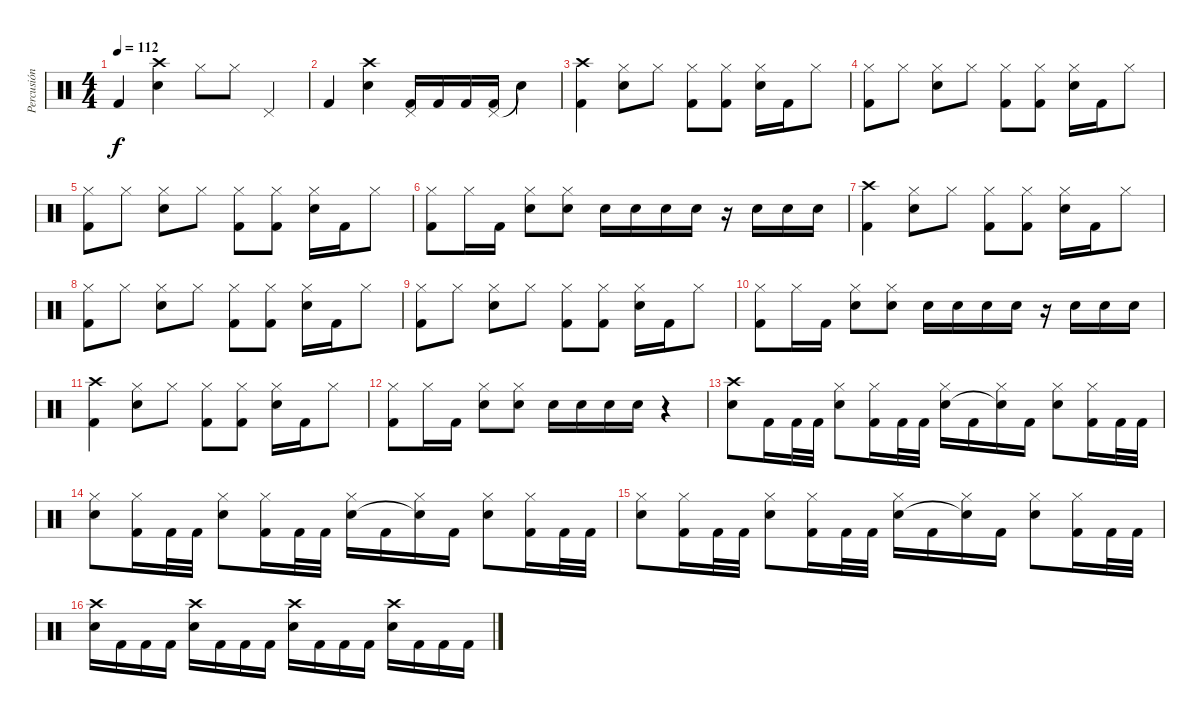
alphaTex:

\track ("Percusión" "Percusión") {instrument percussion}
\staff {score}
\articulation defaults
\ts (4 4)
\tempo 112
\clef neutral
\ks c "Kick (hit) 2".4{dy f}
("Crash high (hit)" "Electric Snare (hit)").4 "Hi-Hat (closed)".8 "Hi-Hat (closed)".8 "Pedal Hi-Hat (hit)".4 |
"Kick (hit) 2".4 ("Crash high (hit)" "Electric Snare (hit)").4 ("Pedal Hi-Hat (hit)" "Kick (hit) 2").16 "Kick (hit) 2".16 "Kick (hit) 2".16 ("Pedal Hi-Hat (hit)" "Kick (hit) 2").16 "Snare (hit)"{t}.4 |
("Crash high (hit)" "Kick (hit) 2").4 ("Hi-Hat (closed)" "Electric Snare (hit)").8 "Hi-Hat (closed)".8 ("Hi-Hat (closed)" "Kick (hit) 2").8 ("Hi-Hat (closed)" "Kick (hit) 2").8 ("Hi-Hat (closed)" "Electric Snare (hit)").16 "Kick (hit) 2".16 "Hi-Hat (closed)".8 |
("Hi-Hat (closed)" "Kick (hit) 2").8 "Hi-Hat (closed)".8 ("Hi-Hat (closed)" "Electric Snare (hit)").8 "Hi-Hat (closed)".8 ("Hi-Hat (closed)" "Kick (hit) 2").8 ("Hi-Hat (closed)" "Kick (hit) 2").8 ("Hi-Hat (closed)" "Electric Snare (hit)").16 "Kick (hit) 2".16 "Hi-Hat (closed)".8 |
("Hi-Hat (closed)" "Kick (hit) 2").8 "Hi-Hat (closed)".8 ("Hi-Hat (closed)" "Electric Snare (hit)").8 "Hi-Hat (closed)".8 ("Hi-Hat (closed)" "Kick (hit) 2").8 ("Hi-Hat (closed)" "Kick (hit) 2").8 ("Hi-Hat (closed)" "Electric Snare (hit)").16 "Kick (hit) 2".16 "Hi-Hat (closed)".8 |
("Hi-Hat (closed)" "Kick (hit) 2").8 "Hi-Hat (closed)".16 "Kick (hit) 2".16 ("Hi-Hat (closed)" "Electric Snare (hit)").8 ("Hi-Hat (closed)" "Electric Snare (hit)").8 "Electric Snare (hit)".16 "Electric Snare (hit)".16 "Electric Snare (hit)".16 "Electric Snare (hit)".16 r.16 "Electric Snare (hit)".16 "Electric Snare (hit)".16 "Electric Snare (hit)".16 |
("Crash high (hit)" "Kick (hit) 2").4 ("Hi-Hat (closed)" "Electric Snare (hit)").8 "Hi-Hat (closed)".8 ("Hi-Hat (closed)" "Kick (hit) 2").8 ("Hi-Hat (closed)" "Kick (hit) 2").8 ("Hi-Hat (closed)" "Electric Snare (hit)").16 "Kick (hit) 2".16 "Hi-Hat (closed)".8 |
("Hi-Hat (closed)" "Kick (hit) 2").8 "Hi-Hat (closed)".8 ("Hi-Hat (closed)" "Electric Snare (hit)").8 "Hi-Hat (closed)".8 ("Hi-Hat (closed)" "Kick (hit) 2").8 ("Hi-Hat (closed)" "Kick (hit) 2").8 ("Hi-Hat (closed)" "Electric Snare (hit)").16 "Kick (hit) 2".16 "Hi-Hat (closed)".8 |
("Hi-Hat (closed)" "Kick (hit) 2").8 "Hi-Hat (closed)".8 ("Hi-Hat (closed)" "Electric Snare (hit)").8 "Hi-Hat (closed)".8 ("Hi-Hat (closed)" "Kick (hit) 2").8 ("Hi-Hat (closed)" "Kick (hit) 2").8 ("Hi-Hat (closed)" "Electric Snare (hit)").16 "Kick (hit) 2".16 "Hi-Hat (closed)".8 |
("Hi-Hat (closed)" "Kick (hit) 2").8 "Hi-Hat (closed)".16 "Kick (hit) 2".16 ("Hi-Hat (closed)" "Electric Snare (hit)").8 ("Hi-Hat (closed)" "Electric Snare (hit)").8 "Electric Snare (hit)".16 "Electric Snare (hit)".16 "Electric Snare (hit)".16 "Electric Snare (hit)".16 r.16 "Electric Snare (hit)".16 "Electric Snare (hit)".16 "Electric Snare (hit)".16 |
("Crash high (hit)" "Kick (hit) 2").4 ("Hi-Hat (closed)" "Electric Snare (hit)").8 "Hi-Hat (closed)".8 ("Hi-Hat (closed)" "Kick (hit) 2").8 ("Hi-Hat (closed)" "Kick (hit) 2").8 ("Hi-Hat (closed)" "Electric Snare (hit)").16 "Kick (hit) 2".16 "Hi-Hat (closed)".8 |
("Hi-Hat (closed)" "Kick (hit) 2").8 "Hi-Hat (closed)".16 "Kick (hit) 2".16 ("Hi-Hat (closed)" "Electric Snare (hit)").8 ("Hi-Hat (closed)" "Electric Snare (hit)").8 "Electric Snare (hit)".16 "Electric Snare (hit)".16 "Electric Snare (hit)".16 "Electric Snare (hit)".16 r.4 |
("Crash high (hit)" "Electric Snare (hit)").8 "Kick (hit) 2".16 "Kick (hit) 2".32 "Kick (hit) 2".32 ("Hi-Hat (closed)" "Electric Snare (hit)").8 ("Hi-Hat (closed)" "Kick (hit) 2").16 "Kick (hit) 2".32 "Kick (hit) 2".32 ("Hi-Hat (closed)" "Electric Snare (hit)").16 "Kick (hit) 2".16 ("Hi-Hat (closed)" "Snare (hit)"{t}).16 "Kick (hit) 2".16 ("Hi-Hat (closed)" "Electric Snare (hit)").8 ("Hi-Hat (closed)" "Kick (hit) 2").16 "Kick (hit) 2".32 "Kick (hit) 2".32 |
("Hi-Hat (closed)" "Electric Snare (hit)").8 ("Hi-Hat (closed)" "Kick (hit) 2").16 "Kick (hit) 2".32 "Kick (hit) 2".32 ("Hi-Hat (closed)" "Electric Snare (hit)").8 ("Hi-Hat (closed)" "Kick (hit) 2").16 "Kick (hit) 2".32 "Kick (hit) 2".32 ("Hi-Hat (closed)" "Electric Snare (hit)").16 "Kick (hit) 2".16 ("Hi-Hat (closed)" "Snare (hit)"{t}).16 "Kick (hit) 2".16 ("Hi-Hat (closed)" "Electric Snare (hit)").8 ("Hi-Hat (closed)" "Kick (hit) 2").16 "Kick (hit) 2".32 "Kick (hit) 2".32 |
("Hi-Hat (closed)" "Electric Snare (hit)").8 ("Hi-Hat (closed)" "Kick (hit) 2").16 "Kick (hit) 2".32 "Kick (hit) 2".32 ("Hi-Hat (closed)" "Electric Snare (hit)").8 ("Hi-Hat (closed)" "Kick (hit) 2").16 "Kick (hit) 2".32 "Kick (hit) 2".32 ("Hi-Hat (closed)" "Electric Snare (hit)").16 "Kick (hit) 2".16 ("Hi-Hat (closed)" "Snare (hit)"{t}).16 "Kick (hit) 2".16 ("Hi-Hat (closed)" "Electric Snare (hit)").8 ("Hi-Hat (closed)" "Kick (hit) 2").16 "Kick (hit) 2".32 "Kick (hit) 2".32 |
("Crash high (hit)" "Electric Snare (hit)").16 "Kick (hit) 2".16 "Kick (hit) 2".16 "Kick (hit) 2".16 ("Crash high (hit)" "Electric Snare (hit)").16 "Kick (hit) 2".16 "Kick (hit) 2".16 "Kick (hit) 2".16 ("Crash high (hit)" "Electric Snare (hit)").16 "Kick (hit) 2".16 "Kick (hit) 2".16 "Kick (hit) 2".16 ("Crash high (hit)" "Electric Snare (hit)").16 "Kick (hit) 2".16 "Kick (hit) 2".16 "Kick (hit) 2".16
